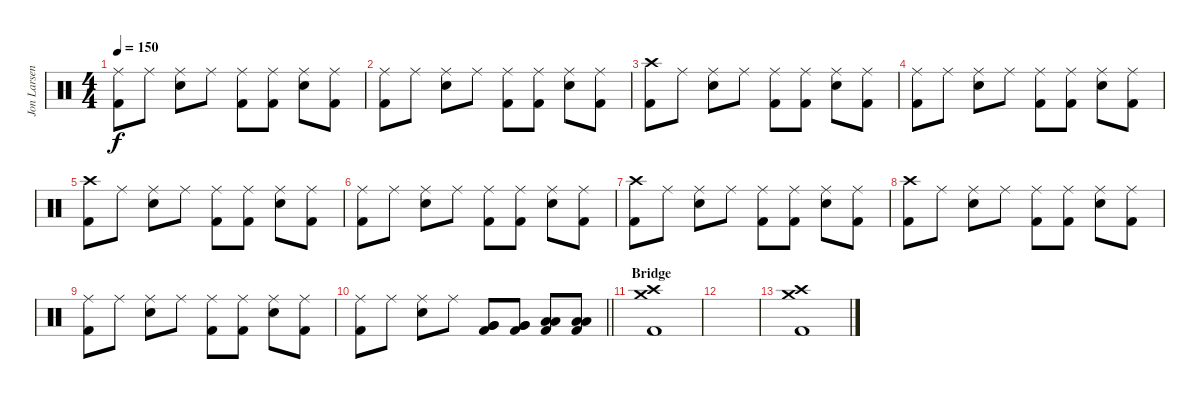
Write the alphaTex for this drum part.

\track ("Jon Larsen" "Jon Larsen") {instrument percussion bank 10}
\staff {score}
\articulation defaults
\ts (4 4)
\tempo 150
\clef neutral
\ks c
("Ride (middle)" "Kick (hit) 2").8{dy f} "Ride (middle)".8 ("Ride (middle)" "Electric Snare (hit)").8 "Ride (middle)".8 ("Ride (middle)" "Kick (hit) 2").8 ("Ride (middle)" "Kick (hit) 2").8 ("Ride (middle)" "Electric Snare (hit)").8 ("Ride (middle)" "Kick (hit) 2").8 |
("Ride (middle)" "Kick (hit) 2").8 "Ride (middle)".8 ("Ride (middle)" "Electric Snare (hit)").8 "Ride (middle)".8 ("Ride (middle)" "Kick (hit) 2").8 ("Ride (middle)" "Kick (hit) 2").8 ("Ride (middle)" "Electric Snare (hit)").8 ("Ride (middle)" "Kick (hit) 2").8 |
("Crash high (hit)" "Kick (hit) 2").8 "Ride (middle)".8 ("Ride (middle)" "Electric Snare (hit)").8 "Ride (middle)".8 ("Ride (middle)" "Kick (hit) 2").8 ("Ride (middle)" "Kick (hit) 2").8 ("Ride (middle)" "Electric Snare (hit)").8 ("Ride (middle)" "Kick (hit) 2").8 |
("Ride (middle)" "Kick (hit) 2").8 "Ride (middle)".8 ("Ride (middle)" "Electric Snare (hit)").8 "Ride (middle)".8 ("Ride (middle)" "Kick (hit) 2").8 ("Ride (middle)" "Kick (hit) 2").8 ("Ride (middle)" "Electric Snare (hit)").8 ("Ride (middle)" "Kick (hit) 2").8 |
("Crash high (hit)" "Kick (hit) 2").8 "Ride (middle)".8 ("Ride (middle)" "Electric Snare (hit)").8 "Ride (middle)".8 ("Ride (middle)" "Kick (hit) 2").8 ("Ride (middle)" "Kick (hit) 2").8 ("Ride (middle)" "Electric Snare (hit)").8 ("Ride (middle)" "Kick (hit) 2").8 |
("Ride (middle)" "Kick (hit) 2").8 "Ride (middle)".8 ("Ride (middle)" "Electric Snare (hit)").8 "Ride (middle)".8 ("Ride (middle)" "Kick (hit) 2").8 ("Ride (middle)" "Kick (hit) 2").8 ("Ride (middle)" "Electric Snare (hit)").8 ("Ride (middle)" "Kick (hit) 2").8 |
("Crash high (hit)" "Kick (hit) 2").8 "Ride (middle)".8 ("Ride (middle)" "Electric Snare (hit)").8 "Ride (middle)".8 ("Ride (middle)" "Kick (hit) 2").8 ("Ride (middle)" "Kick (hit) 2").8 ("Ride (middle)" "Electric Snare (hit)").8 ("Ride (middle)" "Kick (hit) 2").8 |
("Crash high (hit)" "Kick (hit) 2").8 "Ride (middle)".8 ("Ride (middle)" "Electric Snare (hit)").8 "Ride (middle)".8 ("Ride (middle)" "Kick (hit) 2").8 ("Ride (middle)" "Kick (hit) 2").8 ("Ride (middle)" "Electric Snare (hit)").8 ("Ride (middle)" "Kick (hit) 2").8 |
("Ride (middle)" "Kick (hit) 2").8 "Ride (middle)".8 ("Ride (middle)" "Electric Snare (hit)").8 "Ride (middle)".8 ("Ride (middle)" "Kick (hit) 2").8 ("Ride (middle)" "Kick (hit) 2").8 ("Ride (middle)" "Electric Snare (hit)").8 ("Ride (middle)" "Kick (hit) 2").8 |
\barLineRight lightlight
("Ride (middle)" "Kick (hit) 2").8 "Ride (middle)".8 ("Ride (middle)" "Electric Snare (hit)").8 "Ride (middle)".8 ("Very Low Tom (hit)" "Very Low Tom (hit)" "Kick (hit) 2").8 ("Very Low Tom (hit)" "Very Low Tom (hit)" "Kick (hit) 2").8 ("Low Floor Tom (hit)" "Low Floor Tom (hit)" "Kick (hit) 2").8 ("Low Floor Tom (hit)" "Low Floor Tom (hit)" "Kick (hit) 2").8 |
\section ("" "Bridge")
("Crash high (hit)" "Crash medium (hit)" "Kick (hit) 2").1 |
|
("Crash high (hit)" "Crash medium (hit)" "Kick (hit) 2").1
